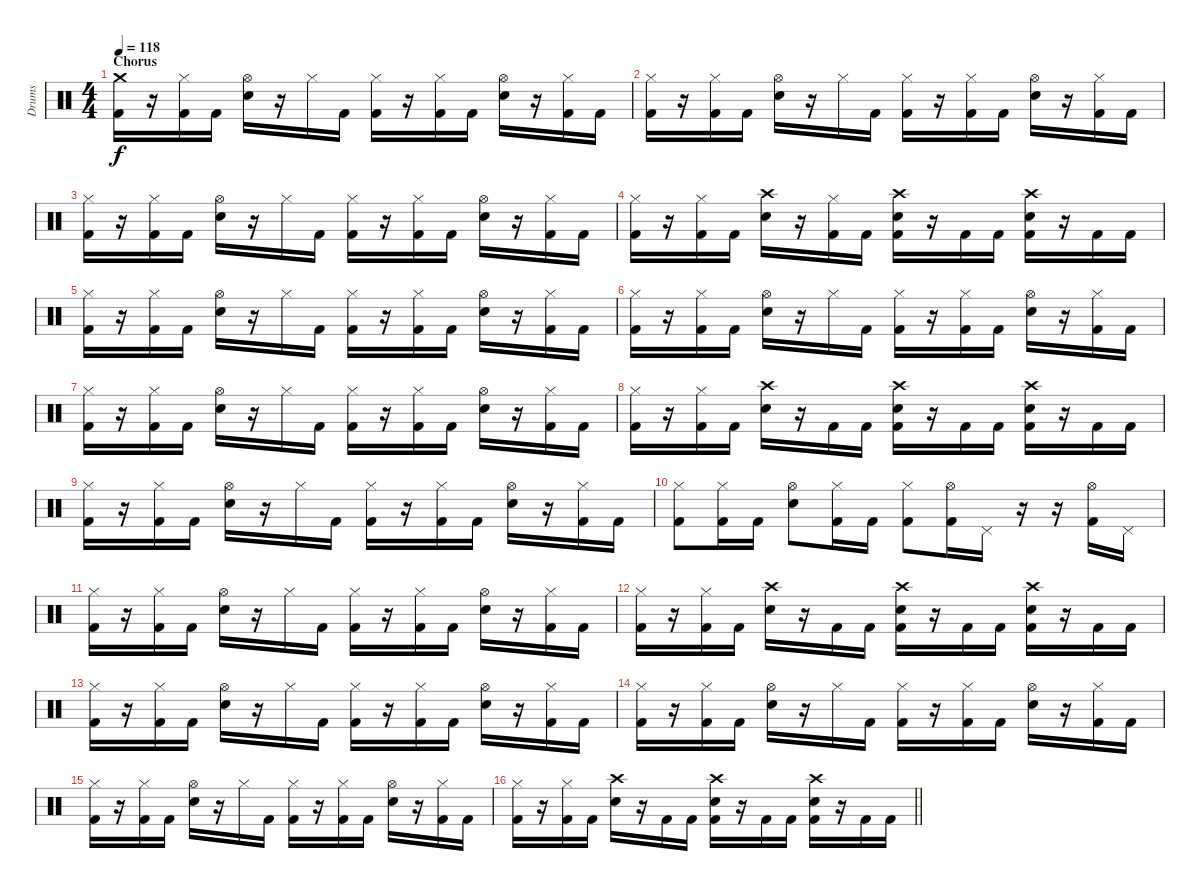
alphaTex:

\track ("Drums" "Drums") {instrument percussion}
\staff {score}
\articulation defaults
\ts (4 4)
\section ("" "Chorus")
\tempo 118
\clef neutral
\ks c
("Crash medium (hit)" "Kick (hit) 2").16{dy f} r.16 ("Hi-Hat (closed)" "Kick (hit) 2").16 "Kick (hit) 2".16 ("Hi-Hat (open)" "Snare (hit) 2").16 r.16 "Hi-Hat (closed)".16 "Kick (hit) 2".16 ("Hi-Hat (closed)" "Kick (hit) 2").16 r.16 ("Hi-Hat (closed)" "Kick (hit) 2").16 "Kick (hit) 2".16 ("Hi-Hat (open)" "Snare (hit) 2").16 r.16 ("Hi-Hat (closed)" "Kick (hit) 2").16 "Kick (hit) 2".16 |
("Hi-Hat (closed)" "Kick (hit) 2").16 r.16 ("Hi-Hat (closed)" "Kick (hit) 2").16 "Kick (hit) 2".16 ("Hi-Hat (open)" "Snare (hit) 2").16 r.16 "Hi-Hat (closed)".16 "Kick (hit) 2".16 ("Hi-Hat (closed)" "Kick (hit) 2").16 r.16 ("Hi-Hat (closed)" "Kick (hit) 2").16 "Kick (hit) 2".16 ("Hi-Hat (open)" "Snare (hit) 2").16 r.16 ("Hi-Hat (closed)" "Kick (hit) 2").16 "Kick (hit) 2".16 |
("Hi-Hat (closed)" "Kick (hit) 2").16 r.16 ("Hi-Hat (closed)" "Kick (hit) 2").16 "Kick (hit) 2".16 ("Hi-Hat (open)" "Snare (hit) 2").16 r.16 "Hi-Hat (closed)".16 "Kick (hit) 2".16 ("Hi-Hat (closed)" "Kick (hit) 2").16 r.16 ("Hi-Hat (closed)" "Kick (hit) 2").16 "Kick (hit) 2".16 ("Hi-Hat (open)" "Snare (hit) 2").16 r.16 ("Hi-Hat (closed)" "Kick (hit) 2").16 "Kick (hit) 2".16 |
("Hi-Hat (closed)" "Kick (hit) 2").16 r.16 ("Hi-Hat (closed)" "Kick (hit) 2").16 "Kick (hit) 2".16 ("Crash high (hit)" "Snare (hit) 2").16 r.16 ("Hi-Hat (closed)" "Kick (hit) 2").16 "Kick (hit) 2".16 ("Crash high (hit)" "Snare (hit) 2" "Kick (hit) 2").16 r.16 "Kick (hit) 2".16 "Kick (hit) 2".16 ("Crash high (hit)" "Snare (hit) 2" "Kick (hit) 2").16 r.16 "Kick (hit) 2".16 "Kick (hit) 2".16 |
("Hi-Hat (closed)" "Kick (hit) 2").16 r.16 ("Hi-Hat (closed)" "Kick (hit) 2").16 "Kick (hit) 2".16 ("Hi-Hat (open)" "Snare (hit) 2").16 r.16 "Hi-Hat (closed)".16 "Kick (hit) 2".16 ("Hi-Hat (closed)" "Kick (hit) 2").16 r.16 ("Hi-Hat (closed)" "Kick (hit) 2").16 "Kick (hit) 2".16 ("Hi-Hat (open)" "Snare (hit) 2").16 r.16 ("Hi-Hat (closed)" "Kick (hit) 2").16 "Kick (hit) 2".16 |
("Hi-Hat (closed)" "Kick (hit) 2").16 r.16 ("Hi-Hat (closed)" "Kick (hit) 2").16 "Kick (hit) 2".16 ("Hi-Hat (open)" "Snare (hit) 2").16 r.16 "Hi-Hat (closed)".16 "Kick (hit) 2".16 ("Hi-Hat (closed)" "Kick (hit) 2").16 r.16 ("Hi-Hat (closed)" "Kick (hit) 2").16 "Kick (hit) 2".16 ("Hi-Hat (open)" "Snare (hit) 2").16 r.16 ("Hi-Hat (closed)" "Kick (hit) 2").16 "Kick (hit) 2".16 |
("Hi-Hat (closed)" "Kick (hit) 2").16 r.16 ("Hi-Hat (closed)" "Kick (hit) 2").16 "Kick (hit) 2".16 ("Hi-Hat (open)" "Snare (hit) 2").16 r.16 "Hi-Hat (closed)".16 "Kick (hit) 2".16 ("Hi-Hat (closed)" "Kick (hit) 2").16 r.16 ("Hi-Hat (closed)" "Kick (hit) 2").16 "Kick (hit) 2".16 ("Hi-Hat (open)" "Snare (hit) 2").16 r.16 ("Hi-Hat (closed)" "Kick (hit) 2").16 "Kick (hit) 2".16 |
("Hi-Hat (closed)" "Kick (hit) 2").16 r.16 ("Hi-Hat (closed)" "Kick (hit) 2").16 "Kick (hit) 2".16 ("Crash high (hit)" "Snare (hit) 2").16 r.16 "Kick (hit) 2".16 "Kick (hit) 2".16 ("Crash high (hit)" "Snare (hit) 2" "Kick (hit) 2").16 r.16 "Kick (hit) 2".16 "Kick (hit) 2".16 ("Crash high (hit)" "Snare (hit) 2" "Kick (hit) 2").16 r.16 "Kick (hit) 2".16 "Kick (hit) 2".16 |
("Hi-Hat (closed)" "Kick (hit) 2").16 r.16 ("Hi-Hat (closed)" "Kick (hit) 2").16 "Kick (hit) 2".16 ("Hi-Hat (open)" "Snare (hit) 2").16 r.16 "Hi-Hat (closed)".16 "Kick (hit) 2".16 ("Hi-Hat (closed)" "Kick (hit) 2").16 r.16 ("Hi-Hat (closed)" "Kick (hit) 2").16 "Kick (hit) 2".16 ("Hi-Hat (open)" "Snare (hit) 2").16 r.16 ("Hi-Hat (closed)" "Kick (hit) 2").16 "Kick (hit) 2".16 |
("Hi-Hat (closed)" "Kick (hit) 2").8 ("Hi-Hat (closed)" "Kick (hit) 2").16 "Kick (hit) 2".16 ("Hi-Hat (open)" "Snare (hit) 2").8 ("Hi-Hat (closed)" "Kick (hit) 2").16 "Kick (hit) 2".16 ("Hi-Hat (closed)" "Kick (hit) 2").8 ("Hi-Hat (open)" "Kick (hit) 2").16 "Pedal Hi-Hat (hit)".16 r.16 r.16 ("Hi-Hat (open)" "Kick (hit) 2").16 "Pedal Hi-Hat (hit)".16 |
("Hi-Hat (closed)" "Kick (hit) 2").16 r.16 ("Hi-Hat (closed)" "Kick (hit) 2").16 "Kick (hit) 2".16 ("Hi-Hat (open)" "Snare (hit) 2").16 r.16 "Hi-Hat (closed)".16 "Kick (hit) 2".16 ("Hi-Hat (closed)" "Kick (hit) 2").16 r.16 ("Hi-Hat (closed)" "Kick (hit) 2").16 "Kick (hit) 2".16 ("Hi-Hat (open)" "Snare (hit) 2").16 r.16 ("Hi-Hat (closed)" "Kick (hit) 2").16 "Kick (hit) 2".16 |
("Hi-Hat (closed)" "Kick (hit) 2").16 r.16 ("Hi-Hat (closed)" "Kick (hit) 2").16 "Kick (hit) 2".16 ("Crash high (hit)" "Snare (hit) 2").16 r.16 "Kick (hit) 2".16 "Kick (hit) 2".16 ("Crash high (hit)" "Snare (hit) 2" "Kick (hit) 2").16 r.16 "Kick (hit) 2".16 "Kick (hit) 2".16 ("Crash high (hit)" "Snare (hit) 2" "Kick (hit) 2").16 r.16 "Kick (hit) 2".16 "Kick (hit) 2".16 |
("Hi-Hat (closed)" "Kick (hit) 2").16 r.16 ("Hi-Hat (closed)" "Kick (hit) 2").16 "Kick (hit) 2".16 ("Hi-Hat (open)" "Snare (hit) 2").16 r.16 "Hi-Hat (closed)".16 "Kick (hit) 2".16 ("Hi-Hat (closed)" "Kick (hit) 2").16 r.16 ("Hi-Hat (closed)" "Kick (hit) 2").16 "Kick (hit) 2".16 ("Hi-Hat (open)" "Snare (hit) 2").16 r.16 ("Hi-Hat (closed)" "Kick (hit) 2").16 "Kick (hit) 2".16 |
("Hi-Hat (closed)" "Kick (hit) 2").16 r.16 ("Hi-Hat (closed)" "Kick (hit) 2").16 "Kick (hit) 2".16 ("Hi-Hat (open)" "Snare (hit) 2").16 r.16 "Hi-Hat (closed)".16 "Kick (hit) 2".16 ("Hi-Hat (closed)" "Kick (hit) 2").16 r.16 ("Hi-Hat (closed)" "Kick (hit) 2").16 "Kick (hit) 2".16 ("Hi-Hat (open)" "Snare (hit) 2").16 r.16 ("Hi-Hat (closed)" "Kick (hit) 2").16 "Kick (hit) 2".16 |
("Hi-Hat (closed)" "Kick (hit) 2").16 r.16 ("Hi-Hat (closed)" "Kick (hit) 2").16 "Kick (hit) 2".16 ("Hi-Hat (open)" "Snare (hit) 2").16 r.16 "Hi-Hat (closed)".16 "Kick (hit) 2".16 ("Hi-Hat (closed)" "Kick (hit) 2").16 r.16 ("Hi-Hat (closed)" "Kick (hit) 2").16 "Kick (hit) 2".16 ("Hi-Hat (open)" "Snare (hit) 2").16 r.16 ("Hi-Hat (closed)" "Kick (hit) 2").16 "Kick (hit) 2".16 |
\barLineRight lightlight
("Hi-Hat (closed)" "Kick (hit) 2").16 r.16 ("Hi-Hat (closed)" "Kick (hit) 2").16 "Kick (hit) 2".16 ("Crash high (hit)" "Snare (hit) 2").16 r.16 "Kick (hit) 2".16 "Kick (hit) 2".16 ("Crash high (hit)" "Snare (hit) 2" "Kick (hit) 2").16 r.16 "Kick (hit) 2".16 "Kick (hit) 2".16 ("Crash high (hit)" "Snare (hit) 2" "Kick (hit) 2").16 r.16 "Kick (hit) 2".16 "Kick (hit) 2".16
